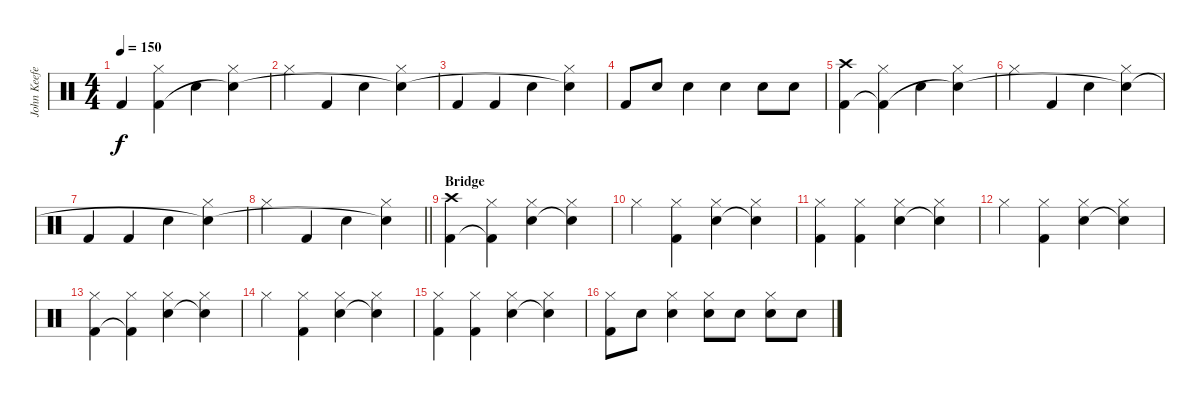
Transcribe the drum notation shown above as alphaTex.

\track ("John Keefe (Percussion)" "John Keefe") {instrument percussion}
\staff {score}
\articulation defaults
\ts (4 4)
\tempo 150
\clef neutral
\ks c "Kick (hit) 2".4{dy f}
("Hi-Hat (closed)" "Kick (hit) 2"{t}).4 "Snare (hit) 2".4 ("Hi-Hat (closed)" "Snare (hit) 2"{t}).4 |
"Hi-Hat (closed)".4 "Kick (hit) 2".4 "Snare (hit) 2".4 ("Hi-Hat (closed)" "Snare (hit) 2"{t}).4 |
"Kick (hit) 2".4 "Kick (hit) 2".4 "Snare (hit) 2".4 ("Hi-Hat (closed)" "Snare (hit) 2"{t}).4 |
"Kick (hit) 2".8 "Snare (hit) 2".8 "Snare (hit) 2".4 "Snare (hit) 2".4 "Snare (hit) 2".8 "Snare (hit) 2".8 |
("Crash high (hit)" "Kick (hit) 2").4 ("Hi-Hat (closed)" "Kick (hit) 2"{t}).4 "Snare (hit) 2".4 ("Hi-Hat (closed)" "Snare (hit) 2"{t}).4 |
"Hi-Hat (closed)".4 "Kick (hit) 2".4 "Snare (hit) 2".4 ("Hi-Hat (closed)" "Snare (hit) 2"{t}).4 |
"Kick (hit) 2".4 "Kick (hit) 2".4 "Snare (hit) 2".4 ("Hi-Hat (closed)" "Snare (hit) 2"{t}).4 |
\barLineRight lightlight "Hi-Hat (closed)".4 "Kick (hit) 2".4 "Snare (hit) 2".4
("Hi-Hat (closed)" "Snare (hit) 2"{t}).4 |
\section ("" "Bridge")
("Crash high (hit)" "Kick (hit) 2").4 ("Hi-Hat (closed)" "Kick (hit) 2"{t}).4 ("Hi-Hat (closed)" "Snare (hit) 2").4 ("Hi-Hat (closed)" "Snare (hit) 2"{t}).4 |
"Hi-Hat (closed)".4 ("Hi-Hat (closed)" "Kick (hit) 2").4 ("Hi-Hat (closed)" "Snare (hit) 2").4 ("Hi-Hat (closed)" "Snare (hit) 2"{t}).4 |
("Hi-Hat (closed)" "Kick (hit) 2").4 ("Hi-Hat (closed)" "Kick (hit) 2").4 ("Hi-Hat (closed)" "Snare (hit) 2").4 ("Hi-Hat (closed)" "Snare (hit) 2"{t}).4 |
"Hi-Hat (closed)".4 ("Hi-Hat (closed)" "Kick (hit) 2").4 ("Hi-Hat (closed)" "Snare (hit) 2").4 ("Hi-Hat (closed)" "Snare (hit) 2"{t}).4 |
("Hi-Hat (closed)" "Kick (hit) 2").4 ("Hi-Hat (closed)" "Kick (hit) 2"{t}).4 ("Hi-Hat (closed)" "Snare (hit) 2").4 ("Hi-Hat (closed)" "Snare (hit) 2"{t}).4 |
"Hi-Hat (closed)".4 ("Hi-Hat (closed)" "Kick (hit) 2").4 ("Hi-Hat (closed)" "Snare (hit) 2").4 ("Hi-Hat (closed)" "Snare (hit) 2"{t}).4 |
("Hi-Hat (closed)" "Kick (hit) 2").4 ("Hi-Hat (closed)" "Kick (hit) 2").4 ("Hi-Hat (closed)" "Snare (hit) 2").4 ("Hi-Hat (closed)" "Snare (hit) 2"{t}).4 |
("Hi-Hat (closed)" "Kick (hit) 2").8 "Snare (hit) 2".8 ("Hi-Hat (closed)" "Snare (hit) 2").4 ("Hi-Hat (closed)" "Snare (hit) 2").8 "Snare (hit) 2".8 ("Hi-Hat (closed)" "Snare (hit) 2").8 "Snare (hit) 2".8
